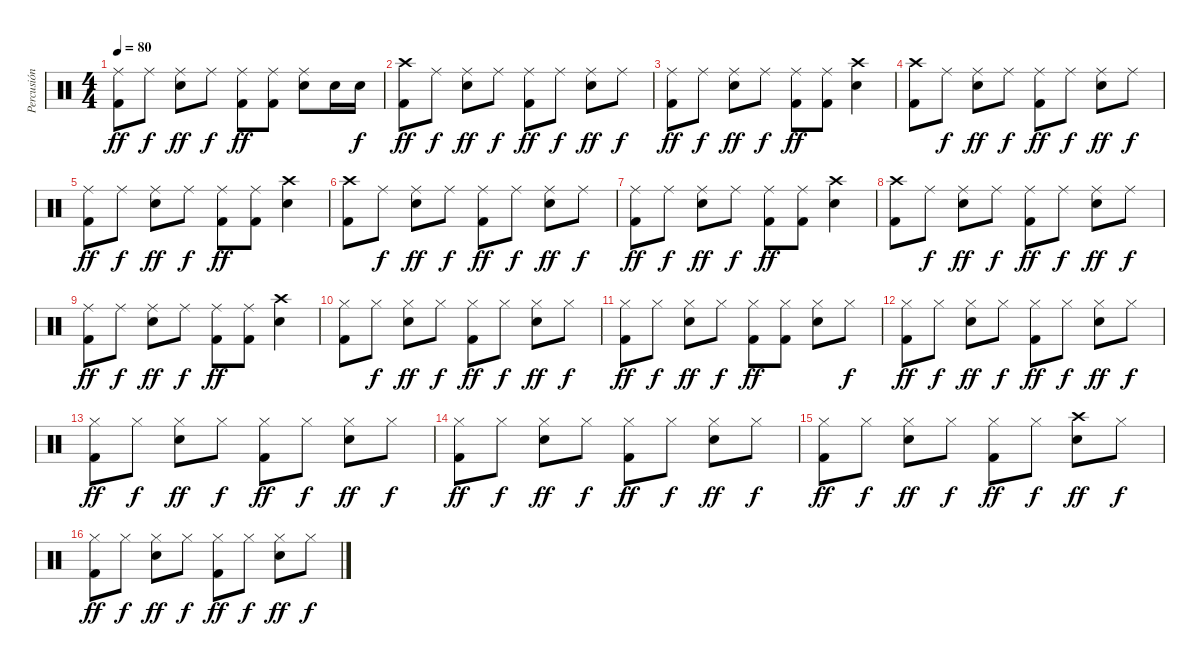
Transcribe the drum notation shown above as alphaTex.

\track ("Percusión" "Percusión") {instrument percussion}
\staff {score}
\articulation defaults
\ts (4 4)
\tempo 80
\clef neutral
\ks c
("Ride (middle)" "Kick (hit) 2").8{dy ff} "Ride (middle)".8{dy f} ("Ride (middle)" "Snare (hit) 2").8{dy ff} "Ride (middle)".8{dy f} ("Ride (middle)" "Kick (hit) 2").8{dy ff} ("Ride (middle)" "Kick (hit) 2").8 ("Ride (middle)" "Snare (hit) 2").8 "Snare (hit) 2".16 "Snare (hit) 2".16{dy f} |
("Crash high (hit)" "Kick (hit) 2").8{dy ff} "Ride (middle)".8{dy f} ("Ride (middle)" "Snare (hit) 2").8{dy ff} "Ride (middle)".8{dy f} ("Ride (middle)" "Kick (hit) 2").8{dy ff} "Ride (middle)".8{dy f} ("Ride (middle)" "Snare (hit) 2").8{dy ff} "Ride (middle)".8{dy f} |
("Ride (middle)" "Kick (hit) 2").8{dy ff} "Ride (middle)".8{dy f} ("Ride (middle)" "Snare (hit) 2").8{dy ff} "Ride (middle)".8{dy f} ("Ride (middle)" "Kick (hit) 2").8{dy ff} ("Ride (middle)" "Kick (hit) 2").8 ("Crash high (hit)" "Snare (hit) 2").4 |
("Crash high (hit)" "Kick (hit) 2").8 "Ride (middle)".8{dy f} ("Ride (middle)" "Snare (hit) 2").8{dy ff} "Ride (middle)".8{dy f} ("Ride (middle)" "Kick (hit) 2").8{dy ff} "Ride (middle)".8{dy f} ("Ride (middle)" "Snare (hit) 2").8{dy ff} "Ride (middle)".8{dy f} |
("Ride (middle)" "Kick (hit) 2").8{dy ff} "Ride (middle)".8{dy f} ("Ride (middle)" "Snare (hit) 2").8{dy ff} "Ride (middle)".8{dy f} ("Ride (middle)" "Kick (hit) 2").8{dy ff} ("Ride (middle)" "Kick (hit) 2").8 ("Crash high (hit)" "Snare (hit) 2").4 |
("Crash high (hit)" "Kick (hit) 2").8 "Ride (middle)".8{dy f} ("Ride (middle)" "Snare (hit) 2").8{dy ff} "Ride (middle)".8{dy f} ("Ride (middle)" "Kick (hit) 2").8{dy ff} "Ride (middle)".8{dy f} ("Ride (middle)" "Snare (hit) 2").8{dy ff} "Ride (middle)".8{dy f} |
("Ride (middle)" "Kick (hit) 2").8{dy ff} "Ride (middle)".8{dy f} ("Ride (middle)" "Snare (hit) 2").8{dy ff} "Ride (middle)".8{dy f} ("Ride (middle)" "Kick (hit) 2").8{dy ff} ("Ride (middle)" "Kick (hit) 2").8 ("Crash high (hit)" "Snare (hit) 2").4 |
("Crash high (hit)" "Kick (hit) 2").8 "Ride (middle)".8{dy f} ("Ride (middle)" "Snare (hit) 2").8{dy ff} "Ride (middle)".8{dy f} ("Ride (middle)" "Kick (hit) 2").8{dy ff} "Ride (middle)".8{dy f} ("Ride (middle)" "Snare (hit) 2").8{dy ff} "Ride (middle)".8{dy f} |
("Ride (middle)" "Kick (hit) 2").8{dy ff} "Ride (middle)".8{dy f} ("Ride (middle)" "Snare (hit) 2").8{dy ff} "Ride (middle)".8{dy f} ("Ride (middle)" "Kick (hit) 2").8{dy ff} ("Ride (middle)" "Kick (hit) 2").8 ("Crash high (hit)" "Snare (hit) 2").4 |
("Hi-Hat (closed)" "Kick (hit) 2").8 "Hi-Hat (closed)".8{dy f} ("Hi-Hat (closed)" "Snare (hit) 2").8{dy ff} "Hi-Hat (closed)".8{dy f} ("Hi-Hat (closed)" "Kick (hit) 2").8{dy ff} "Hi-Hat (closed)".8{dy f} ("Hi-Hat (closed)" "Snare (hit) 2").8{dy ff} "Hi-Hat (closed)".8{dy f} |
("Hi-Hat (closed)" "Kick (hit) 2").8{dy ff} "Hi-Hat (closed)".8{dy f} ("Hi-Hat (closed)" "Snare (hit) 2").8{dy ff} "Hi-Hat (closed)".8{dy f} ("Hi-Hat (closed)" "Kick (hit) 2").8{dy ff} ("Hi-Hat (closed)" "Kick (hit) 2").8 ("Hi-Hat (closed)" "Snare (hit) 2").8 "Hi-Hat (closed)".8{dy f} |
("Hi-Hat (closed)" "Kick (hit) 2").8{dy ff} "Hi-Hat (closed)".8{dy f} ("Hi-Hat (closed)" "Snare (hit) 2").8{dy ff} "Hi-Hat (closed)".8{dy f} ("Hi-Hat (closed)" "Kick (hit) 2").8{dy ff} "Hi-Hat (closed)".8{dy f} ("Hi-Hat (closed)" "Snare (hit) 2").8{dy ff} "Hi-Hat (closed)".8{dy f} |
("Hi-Hat (closed)" "Kick (hit) 2").8{dy ff} "Hi-Hat (closed)".8{dy f} ("Hi-Hat (closed)" "Snare (hit) 2").8{dy ff} "Hi-Hat (closed)".8{dy f} ("Hi-Hat (closed)" "Kick (hit) 2").8{dy ff} "Hi-Hat (closed)".8{dy f} ("Hi-Hat (closed)" "Snare (hit) 2").8{dy ff} "Hi-Hat (closed)".8{dy f} |
("Hi-Hat (closed)" "Kick (hit) 2").8{dy ff} "Hi-Hat (closed)".8{dy f} ("Hi-Hat (closed)" "Snare (hit) 2").8{dy ff} "Hi-Hat (closed)".8{dy f} ("Hi-Hat (closed)" "Kick (hit) 2").8{dy ff} "Hi-Hat (closed)".8{dy f} ("Hi-Hat (closed)" "Snare (hit) 2").8{dy ff} "Hi-Hat (closed)".8{dy f} |
("Hi-Hat (closed)" "Kick (hit) 2").8{dy ff} "Hi-Hat (closed)".8{dy f} ("Hi-Hat (closed)" "Snare (hit) 2").8{dy ff} "Hi-Hat (closed)".8{dy f} ("Hi-Hat (closed)" "Kick (hit) 2").8{dy ff} "Hi-Hat (closed)".8{dy f} ("Crash high (hit)" "Snare (hit) 2").8{dy ff} "Hi-Hat (closed)".8{dy f} |
("Hi-Hat (closed)" "Kick (hit) 2").8{dy ff} "Hi-Hat (closed)".8{dy f} ("Hi-Hat (closed)" "Snare (hit) 2").8{dy ff} "Hi-Hat (closed)".8{dy f} ("Hi-Hat (closed)" "Kick (hit) 2").8{dy ff} "Hi-Hat (closed)".8{dy f} ("Hi-Hat (closed)" "Snare (hit) 2").8{dy ff} "Hi-Hat (closed)".8{dy f}
